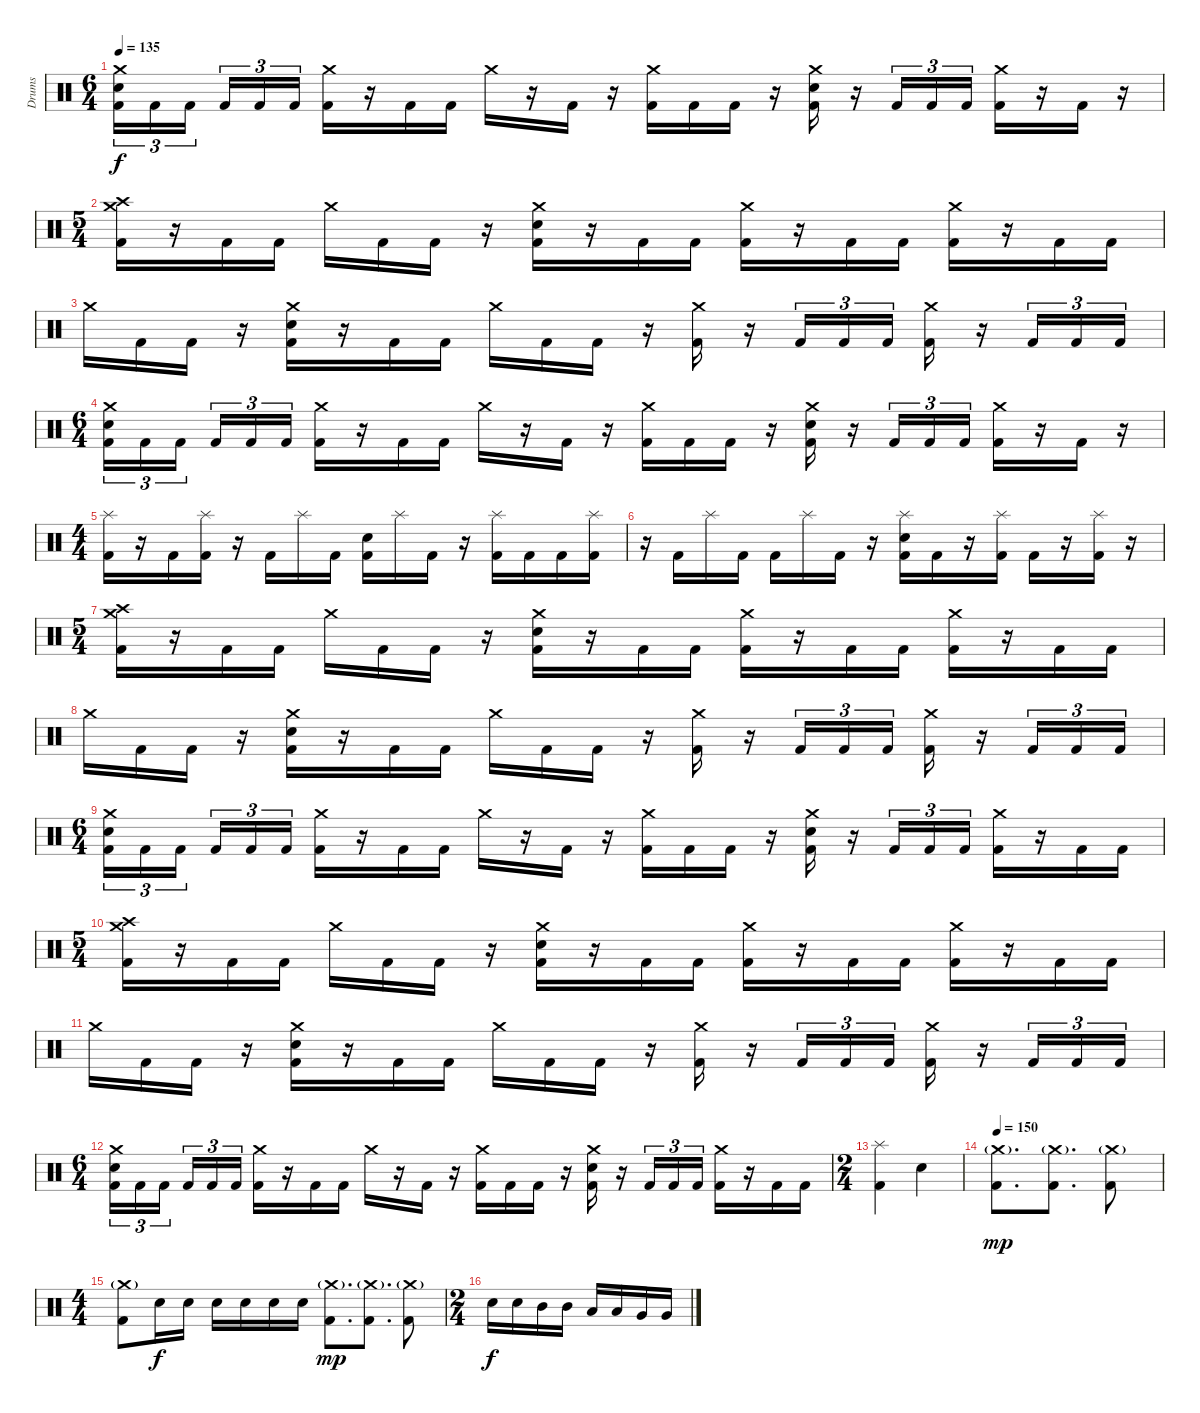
\track ("Drums" "Drums") {instrument percussion}
\staff {score}
\articulation defaults
\ts (6 4)
\tempo 135
\clef neutral
\ks c
("Crash medium (hit)" "Electric Snare (hit)" "Kick (hit) 2").16{tu (3 2) dy f} "Kick (hit) 2".16{tu (3 2)} "Kick (hit) 2".16{tu (3 2) beam splitsecondary} "Kick (hit) 2".16{tu (3 2)} "Kick (hit) 2".16{tu (3 2)} "Kick (hit) 2".16{tu (3 2) beam splitsecondary} ("Crash medium (hit)" "Kick (hit) 2").16 r.16 "Kick (hit) 2".16 "Kick (hit) 2".16 "Crash medium (hit)".16 r.16 "Kick (hit) 2".16 r.16 ("Crash medium (hit)" "Kick (hit) 2").16 "Kick (hit) 2".16 "Kick (hit) 2".16 r.16 ("Crash medium (hit)" "Electric Snare (hit)" "Kick (hit) 2").16 r.16 "Kick (hit) 2".16{tu (3 2)} "Kick (hit) 2".16{tu (3 2)} "Kick (hit) 2".16{tu (3 2) beam splitsecondary} ("Crash medium (hit)" "Kick (hit) 2").16 r.16 "Kick (hit) 2".16 r.16 |
\ts (5 4)
("Crash high (hit)" "Crash medium (hit)" "Kick (hit) 2").16 r.16 "Kick (hit) 2".16 "Kick (hit) 2".16 "Crash medium (hit)".16 "Kick (hit) 2".16 "Kick (hit) 2".16 r.16 ("Crash medium (hit)" "Electric Snare (hit)" "Kick (hit) 2").16 r.16 "Kick (hit) 2".16 "Kick (hit) 2".16 ("Crash medium (hit)" "Kick (hit) 2").16 r.16 "Kick (hit) 2".16 "Kick (hit) 2".16 ("Crash medium (hit)" "Kick (hit) 2").16 r.16 "Kick (hit) 2".16 "Kick (hit) 2".16 |
"Crash medium (hit)".16 "Kick (hit) 2".16 "Kick (hit) 2".16 r.16 ("Crash medium (hit)" "Electric Snare (hit)" "Kick (hit) 2").16 r.16 "Kick (hit) 2".16 "Kick (hit) 2".16 "Crash medium (hit)".16 "Kick (hit) 2".16 "Kick (hit) 2".16 r.16 ("Crash medium (hit)" "Kick (hit) 2").16 r.16 "Kick (hit) 2".16{tu (3 2)} "Kick (hit) 2".16{tu (3 2)} "Kick (hit) 2".16{tu (3 2)} ("Crash medium (hit)" "Kick (hit) 2").16 r.16 "Kick (hit) 2".16{tu (3 2)} "Kick (hit) 2".16{tu (3 2)} "Kick (hit) 2".16{tu (3 2)} |
\ts (6 4)
("Crash medium (hit)" "Electric Snare (hit)" "Kick (hit) 2").16{tu (3 2)} "Kick (hit) 2".16{tu (3 2)} "Kick (hit) 2".16{tu (3 2) beam splitsecondary} "Kick (hit) 2".16{tu (3 2)} "Kick (hit) 2".16{tu (3 2)} "Kick (hit) 2".16{tu (3 2) beam splitsecondary} ("Crash medium (hit)" "Kick (hit) 2").16 r.16 "Kick (hit) 2".16 "Kick (hit) 2".16 "Crash medium (hit)".16 r.16 "Kick (hit) 2".16 r.16 ("Crash medium (hit)" "Kick (hit) 2").16 "Kick (hit) 2".16 "Kick (hit) 2".16 r.16 ("Crash medium (hit)" "Electric Snare (hit)" "Kick (hit) 2").16 r.16 "Kick (hit) 2".16{tu (3 2)} "Kick (hit) 2".16{tu (3 2)} "Kick (hit) 2".16{tu (3 2) beam splitsecondary} ("Crash medium (hit)" "Kick (hit) 2").16 r.16 "Kick (hit) 2".16 r.16 |
\ts (4 4)
("Splash (hit)" "Kick (hit) 2").16 r.16 "Kick (hit) 2".16 ("Splash (hit)" "Kick (hit) 2").16 r.16 "Kick (hit) 2".16 "Splash (hit)".16 "Kick (hit) 2".16 ("Electric Snare (hit)" "Kick (hit) 2").16 "Splash (hit)".16 "Kick (hit) 2".16 r.16 ("Splash (hit)" "Kick (hit) 2").16 "Kick (hit) 2".16 "Kick (hit) 2".16 ("Splash (hit)" "Kick (hit) 2").16 |
r.16 "Kick (hit) 2".16 "Splash (hit)".16 "Kick (hit) 2".16 "Kick (hit) 2".16 "Splash (hit)".16 "Kick (hit) 2".16 r.16 ("Splash (hit)" "Electric Snare (hit)" "Kick (hit) 2").16 "Kick (hit) 2".16 r.16 ("Splash (hit)" "Kick (hit) 2").16 "Kick (hit) 2".16 r.16 ("Splash (hit)" "Kick (hit) 2").16 r.16 |
\ts (5 4)
("Crash high (hit)" "Crash medium (hit)" "Kick (hit) 2").16 r.16 "Kick (hit) 2".16 "Kick (hit) 2".16 "Crash medium (hit)".16 "Kick (hit) 2".16 "Kick (hit) 2".16 r.16 ("Crash medium (hit)" "Electric Snare (hit)" "Kick (hit) 2").16 r.16 "Kick (hit) 2".16 "Kick (hit) 2".16 ("Crash medium (hit)" "Kick (hit) 2").16 r.16 "Kick (hit) 2".16 "Kick (hit) 2".16 ("Crash medium (hit)" "Kick (hit) 2").16 r.16 "Kick (hit) 2".16 "Kick (hit) 2".16 |
"Crash medium (hit)".16 "Kick (hit) 2".16 "Kick (hit) 2".16 r.16 ("Crash medium (hit)" "Electric Snare (hit)" "Kick (hit) 2").16 r.16 "Kick (hit) 2".16 "Kick (hit) 2".16 "Crash medium (hit)".16 "Kick (hit) 2".16 "Kick (hit) 2".16 r.16 ("Crash medium (hit)" "Kick (hit) 2").16 r.16 "Kick (hit) 2".16{tu (3 2)} "Kick (hit) 2".16{tu (3 2)} "Kick (hit) 2".16{tu (3 2)} ("Crash medium (hit)" "Kick (hit) 2").16 r.16 "Kick (hit) 2".16{tu (3 2)} "Kick (hit) 2".16{tu (3 2)} "Kick (hit) 2".16{tu (3 2)} |
\ts (6 4)
("Crash medium (hit)" "Electric Snare (hit)" "Kick (hit) 2").16{tu (3 2)} "Kick (hit) 2".16{tu (3 2)} "Kick (hit) 2".16{tu (3 2) beam splitsecondary} "Kick (hit) 2".16{tu (3 2)} "Kick (hit) 2".16{tu (3 2)} "Kick (hit) 2".16{tu (3 2) beam splitsecondary} ("Crash medium (hit)" "Kick (hit) 2").16 r.16 "Kick (hit) 2".16 "Kick (hit) 2".16 "Crash medium (hit)".16 r.16 "Kick (hit) 2".16 r.16 ("Crash medium (hit)" "Kick (hit) 2").16 "Kick (hit) 2".16 "Kick (hit) 2".16 r.16 ("Crash medium (hit)" "Electric Snare (hit)" "Kick (hit) 2").16 r.16 "Kick (hit) 2".16{tu (3 2)} "Kick (hit) 2".16{tu (3 2)} "Kick (hit) 2".16{tu (3 2) beam splitsecondary} ("Crash medium (hit)" "Kick (hit) 2").16 r.16 "Kick (hit) 2".16 "Kick (hit) 2".16 |
\ts (5 4)
("Crash high (hit)" "Crash medium (hit)" "Kick (hit) 2").16 r.16 "Kick (hit) 2".16 "Kick (hit) 2".16 "Crash medium (hit)".16 "Kick (hit) 2".16 "Kick (hit) 2".16 r.16 ("Crash medium (hit)" "Electric Snare (hit)" "Kick (hit) 2").16 r.16 "Kick (hit) 2".16 "Kick (hit) 2".16 ("Crash medium (hit)" "Kick (hit) 2").16 r.16 "Kick (hit) 2".16 "Kick (hit) 2".16 ("Crash medium (hit)" "Kick (hit) 2").16 r.16 "Kick (hit) 2".16 "Kick (hit) 2".16 |
"Crash medium (hit)".16 "Kick (hit) 2".16 "Kick (hit) 2".16 r.16 ("Crash medium (hit)" "Electric Snare (hit)" "Kick (hit) 2").16 r.16 "Kick (hit) 2".16 "Kick (hit) 2".16 "Crash medium (hit)".16 "Kick (hit) 2".16 "Kick (hit) 2".16 r.16 ("Crash medium (hit)" "Kick (hit) 2").16 r.16 "Kick (hit) 2".16{tu (3 2)} "Kick (hit) 2".16{tu (3 2)} "Kick (hit) 2".16{tu (3 2)} ("Crash medium (hit)" "Kick (hit) 2").16 r.16 "Kick (hit) 2".16{tu (3 2)} "Kick (hit) 2".16{tu (3 2)} "Kick (hit) 2".16{tu (3 2)} |
\ts (6 4)
("Crash medium (hit)" "Electric Snare (hit)" "Kick (hit) 2").16{tu (3 2)} "Kick (hit) 2".16{tu (3 2)} "Kick (hit) 2".16{tu (3 2) beam splitsecondary} "Kick (hit) 2".16{tu (3 2)} "Kick (hit) 2".16{tu (3 2)} "Kick (hit) 2".16{tu (3 2) beam splitsecondary} ("Crash medium (hit)" "Kick (hit) 2").16 r.16 "Kick (hit) 2".16 "Kick (hit) 2".16 "Crash medium (hit)".16 r.16 "Kick (hit) 2".16 r.16 ("Crash medium (hit)" "Kick (hit) 2").16 "Kick (hit) 2".16 "Kick (hit) 2".16 r.16 ("Crash medium (hit)" "Electric Snare (hit)" "Kick (hit) 2").16 r.16 "Kick (hit) 2".16{tu (3 2)} "Kick (hit) 2".16{tu (3 2)} "Kick (hit) 2".16{tu (3 2) beam splitsecondary} ("Crash medium (hit)" "Kick (hit) 2").16 r.16 "Kick (hit) 2".16 "Kick (hit) 2".16 |
\ts (2 4)
("Splash (hit)" "Kick (hit) 2").4 "Electric Snare (hit)".4 |
\tempo 150
("Crash medium (hit)"{g} "Kick (hit) 2").8{d dy mp} ("Crash medium (hit)"{g} "Kick (hit) 2").8{d} ("Crash medium (hit)"{g} "Kick (hit) 2").8 |
\ts (4 4)
("Crash medium (hit)"{g} "Kick (hit) 2").8 "Electric Snare (hit)".16{dy f} "Electric Snare (hit)".16 "Electric Snare (hit)".16 "Electric Snare (hit)".16 "Electric Snare (hit)".16 "Electric Snare (hit)".16 ("Crash medium (hit)"{g} "Kick (hit) 2").8{d dy mp} ("Crash medium (hit)"{g} "Kick (hit) 2").8{d} ("Crash medium (hit)"{g} "Kick (hit) 2").8 |
\ts (2 4)
"Electric Snare (hit)".16{dy f} "Electric Snare (hit)".16 "Mid Tom (hit)".16 "Mid Tom (hit)".16 "Low Tom (hit)".16 "Low Tom (hit)".16 "Very Low Tom (hit)".16 "Very Low Tom (hit)".16
